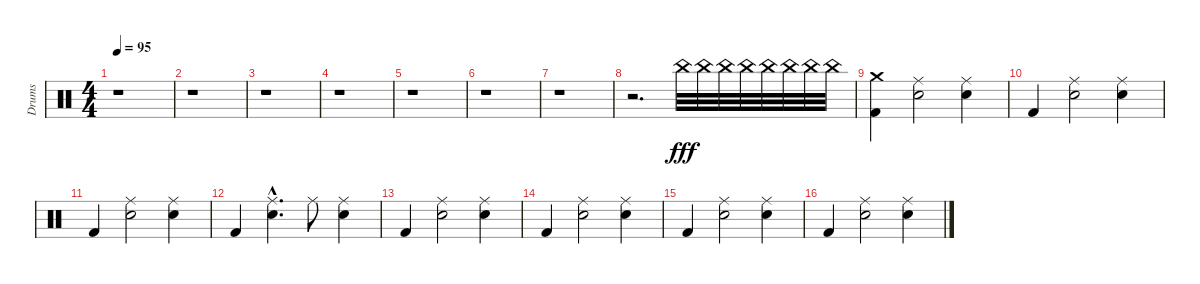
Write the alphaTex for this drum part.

\track ("Drums" "Drums") {instrument percussion}
\staff {score}
\articulation defaults
\ts (4 4)
\tempo 95
\clef neutral
\ks c
r.1{dy fff} |
r.1 |
r.1 |
r.1 |
r.1 |
r.1 |
r.1 |
r.2{d} "China (hit)".32 "China (hit)".32 "China (hit)".32 "China (hit)".32 "China (hit)".32 "China (hit)".32 "China (hit)".32 "China (hit)".32 |
("Crash medium (hit)" "Kick (hit) 2").4 ("Ride (middle)" "Snare (hit) 2").2 ("Ride (middle)" "Snare (hit) 2").4 |
"Kick (hit) 2".4 ("Ride (middle)" "Snare (hit) 2").2 ("Ride (middle)" "Snare (hit) 2").4 |
"Kick (hit) 2".4 ("Ride (middle)" "Snare (hit) 2").2 ("Ride (middle)" "Snare (hit) 2").4 |
"Kick (hit) 2".4 ("Ride (middle)"{hac} "Snare (hit) 2"{hac}).4{d} "Ride (middle)".8 ("Ride (middle)" "Snare (hit) 2").4 |
"Kick (hit) 2".4 ("Ride (middle)" "Snare (hit) 2").2 ("Ride (middle)" "Snare (hit) 2").4 |
"Kick (hit) 2".4 ("Ride (middle)" "Snare (hit) 2").2 ("Ride (middle)" "Snare (hit) 2").4 |
"Kick (hit) 2".4 ("Ride (middle)" "Snare (hit) 2").2 ("Ride (middle)" "Snare (hit) 2").4 |
"Kick (hit) 2".4 ("Ride (middle)" "Snare (hit) 2").2 ("Ride (middle)" "Snare (hit) 2").4
